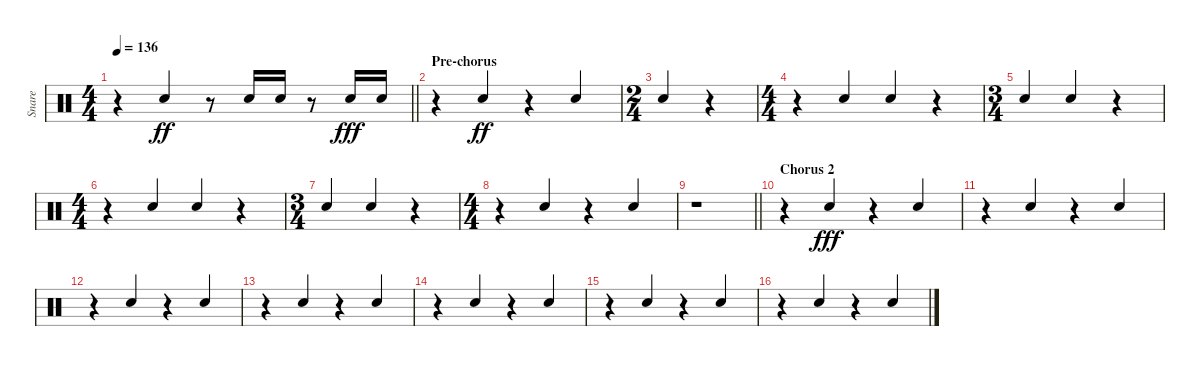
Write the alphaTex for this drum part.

\track ("Snare" "Snare") {instrument percussion}
\staff {score}
\articulation defaults
\ts (4 4)
\tempo 136
\clef neutral
\barLineRight lightlight
\ks c
r.4{dy ff beam merge} "Electric Snare (hit)".4{beam Up} r.8 "Electric Snare (hit)".16{beam Up} "Electric Snare (hit)".16{beam Up} r.8 "Electric Snare (hit)".16{dy fff beam Up} "Electric Snare (hit)".16{beam Up} |
\section ("" "Pre-chorus")
r.4{beam merge} "Electric Snare (hit)".4{dy ff beam Up} r.4{beam merge} "Electric Snare (hit)".4{beam Up} |
\ts (2 4)
"Electric Snare (hit)".4{beam Up} r.4 |
\ts (4 4)
r.4{beam merge} "Electric Snare (hit)".4{beam Up} "Electric Snare (hit)".4{beam Up beam merge} r.4 |
\ts (3 4)
"Electric Snare (hit)".4{beam Up beam merge} "Electric Snare (hit)".4{beam Up} r.4 |
\ts (4 4)
r.4{beam merge} "Electric Snare (hit)".4{beam Up} "Electric Snare (hit)".4{beam Up beam merge} r.4 |
\ts (3 4)
"Electric Snare (hit)".4{beam Up beam merge} "Electric Snare (hit)".4{beam Up} r.4 |
\ts (4 4)
r.4{beam merge} "Electric Snare (hit)".4{beam Up} r.4 "Electric Snare (hit)".4{beam Up} |
\barLineRight lightlight
r.1 |
\section ("" "Chorus 2")
r.4 "Electric Snare (hit)".4{dy fff beam Up} r.4{beam merge} "Electric Snare (hit)".4{beam Up} |
r.4 "Electric Snare (hit)".4{beam Up} r.4{beam merge} "Electric Snare (hit)".4{beam Up} |
r.4 "Electric Snare (hit)".4{beam Up} r.4{beam merge} "Electric Snare (hit)".4{beam Up} |
r.4 "Electric Snare (hit)".4{beam Up} r.4{beam merge} "Electric Snare (hit)".4{beam Up} |
r.4 "Electric Snare (hit)".4{beam Up} r.4{beam merge} "Electric Snare (hit)".4{beam Up} |
r.4 "Electric Snare (hit)".4{beam Up} r.4{beam merge} "Electric Snare (hit)".4{beam Up} |
r.4 "Electric Snare (hit)".4{beam Up} r.4{beam merge} "Electric Snare (hit)".4{beam Up}
